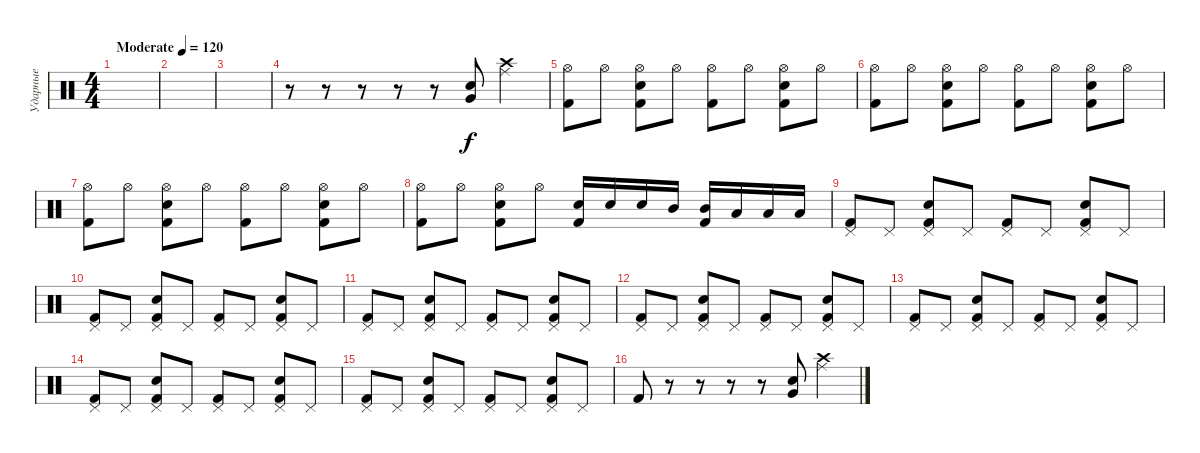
\track ("Ударные" "Ударные") {instrument percussion}
\staff {score}
\articulation defaults
\ts (4 4)
\tempo (120 "Moderate")
\clef neutral
\ks c
|
|
|
r.8 r.8 r.8 r.8 r.8 ("Snare (hit) 2" "Very Low Tom (hit)").8 ("Ride (middle)" "Crash high (hit)").4 |
("Hi-Hat (open)" "Kick (hit) 2").8 "Hi-Hat (open)".8 ("Hi-Hat (open)" "Kick (hit) 2" "Snare (hit) 2").8 "Hi-Hat (open)".8 ("Hi-Hat (open)" "Kick (hit) 2").8 "Hi-Hat (open)".8 ("Hi-Hat (open)" "Kick (hit) 2" "Snare (hit) 2").8 "Hi-Hat (open)".8 |
("Hi-Hat (open)" "Kick (hit) 2").8 "Hi-Hat (open)".8 ("Hi-Hat (open)" "Kick (hit) 2" "Snare (hit) 2").8 "Hi-Hat (open)".8 ("Hi-Hat (open)" "Kick (hit) 2").8 "Hi-Hat (open)".8 ("Hi-Hat (open)" "Kick (hit) 2" "Snare (hit) 2").8 "Hi-Hat (open)".8 |
("Hi-Hat (open)" "Kick (hit) 2").8 "Hi-Hat (open)".8 ("Hi-Hat (open)" "Kick (hit) 2" "Snare (hit) 2").8 "Hi-Hat (open)".8 ("Hi-Hat (open)" "Kick (hit) 2").8 "Hi-Hat (open)".8 ("Hi-Hat (open)" "Kick (hit) 2" "Snare (hit) 2").8 "Hi-Hat (open)".8 |
("Hi-Hat (open)" "Kick (hit) 2").8 "Hi-Hat (open)".8 ("Hi-Hat (open)" "Kick (hit) 2" "Snare (hit) 2").8 "Hi-Hat (open)".8 ("Snare (hit) 2" "Kick (hit) 2").16 "Snare (hit) 2".16 "Snare (hit) 2".16 "Mid Tom (hit)".16 ("Mid Tom (hit)" "Kick (hit) 2").16 "Low Tom (hit)".16 "Low Tom (hit)".16 "Low Tom (hit)".16 |
("Pedal Hi-Hat (hit)" "Kick (hit) 2").8 "Pedal Hi-Hat (hit)".8 ("Pedal Hi-Hat (hit)" "Kick (hit) 2" "Snare (hit) 2").8 "Pedal Hi-Hat (hit)".8 ("Pedal Hi-Hat (hit)" "Kick (hit) 2").8 "Pedal Hi-Hat (hit)".8 ("Pedal Hi-Hat (hit)" "Kick (hit) 2" "Snare (hit) 2").8 "Pedal Hi-Hat (hit)".8 |
("Pedal Hi-Hat (hit)" "Kick (hit) 2").8 "Pedal Hi-Hat (hit)".8 ("Pedal Hi-Hat (hit)" "Kick (hit) 2" "Snare (hit) 2").8 "Pedal Hi-Hat (hit)".8 ("Pedal Hi-Hat (hit)" "Kick (hit) 2").8 "Pedal Hi-Hat (hit)".8 ("Pedal Hi-Hat (hit)" "Kick (hit) 2" "Snare (hit) 2").8 "Pedal Hi-Hat (hit)".8 |
("Pedal Hi-Hat (hit)" "Kick (hit) 2").8 "Pedal Hi-Hat (hit)".8 ("Pedal Hi-Hat (hit)" "Kick (hit) 2" "Snare (hit) 2").8 "Pedal Hi-Hat (hit)".8 ("Pedal Hi-Hat (hit)" "Kick (hit) 2").8 "Pedal Hi-Hat (hit)".8 ("Pedal Hi-Hat (hit)" "Kick (hit) 2" "Snare (hit) 2").8 "Pedal Hi-Hat (hit)".8 |
("Pedal Hi-Hat (hit)" "Kick (hit) 2").8 "Pedal Hi-Hat (hit)".8 ("Pedal Hi-Hat (hit)" "Kick (hit) 2" "Snare (hit) 2").8 "Pedal Hi-Hat (hit)".8 ("Pedal Hi-Hat (hit)" "Kick (hit) 2").8 "Pedal Hi-Hat (hit)".8 ("Pedal Hi-Hat (hit)" "Kick (hit) 2" "Snare (hit) 2").8 "Pedal Hi-Hat (hit)".8 |
("Pedal Hi-Hat (hit)" "Kick (hit) 2").8 "Pedal Hi-Hat (hit)".8 ("Pedal Hi-Hat (hit)" "Kick (hit) 2" "Snare (hit) 2").8 "Pedal Hi-Hat (hit)".8 ("Pedal Hi-Hat (hit)" "Kick (hit) 2").8 "Pedal Hi-Hat (hit)".8 ("Pedal Hi-Hat (hit)" "Kick (hit) 2" "Snare (hit) 2").8 "Pedal Hi-Hat (hit)".8 |
("Pedal Hi-Hat (hit)" "Kick (hit) 2").8 "Pedal Hi-Hat (hit)".8 ("Pedal Hi-Hat (hit)" "Kick (hit) 2" "Snare (hit) 2").8 "Pedal Hi-Hat (hit)".8 ("Pedal Hi-Hat (hit)" "Kick (hit) 2").8 "Pedal Hi-Hat (hit)".8 ("Pedal Hi-Hat (hit)" "Kick (hit) 2" "Snare (hit) 2").8 "Pedal Hi-Hat (hit)".8 |
("Pedal Hi-Hat (hit)" "Kick (hit) 2").8 "Pedal Hi-Hat (hit)".8 ("Pedal Hi-Hat (hit)" "Kick (hit) 2" "Snare (hit) 2").8 "Pedal Hi-Hat (hit)".8 ("Pedal Hi-Hat (hit)" "Kick (hit) 2").8 "Pedal Hi-Hat (hit)".8 ("Pedal Hi-Hat (hit)" "Kick (hit) 2" "Snare (hit) 2").8 "Pedal Hi-Hat (hit)".8 |
"Kick (hit) 2".8 r.8 r.8 r.8 r.8 ("Snare (hit) 2" "Very Low Tom (hit)").8 ("Ride (middle)" "Crash high (hit)").4
